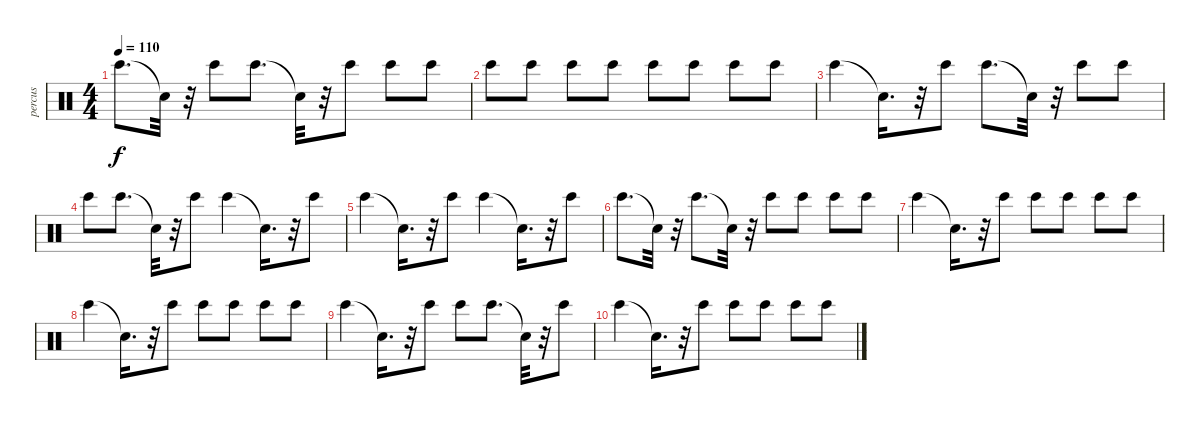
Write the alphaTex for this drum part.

\track ("percus" "percus") {instrument percussion}
\staff {score}
\articulation defaults
\ts (4 4)
\tempo 110
\clef neutral
\ks c "Bongo High (hit)".8{d dy f} "Snare (hit)"{t}.32
r.32 "Bongo High (hit)".8 "Bongo High (hit)".8{d} "Snare (hit)"{t}.32 r.32 "Bongo High (hit)".8 "Bongo High (hit)".8 "Bongo High (hit)".8 |
"Bongo High (hit)".8 "Bongo High (hit)".8 "Bongo High (hit)".8 "Bongo High (hit)".8 "Bongo High (hit)".8 "Bongo High (hit)".8 "Bongo High (hit)".8 "Bongo High (hit)".8 |
"Bongo High (hit)".4 "Snare (hit)"{t}.16{d} r.32 "Bongo High (hit)".8 "Bongo High (hit)".8{d} "Snare (hit)"{t}.32 r.32 "Bongo High (hit)".8 "Bongo High (hit)".8 |
"Bongo High (hit)".8 "Bongo High (hit)".8{d} "Snare (hit)"{t}.32 r.32 "Bongo High (hit)".8 "Bongo High (hit)".4 "Snare (hit)"{t}.16{d} r.32 "Bongo High (hit)".8 |
"Bongo High (hit)".4 "Snare (hit)"{t}.16{d} r.32 "Bongo High (hit)".8 "Bongo High (hit)".4 "Snare (hit)"{t}.16{d} r.32 "Bongo High (hit)".8 |
"Bongo High (hit)".8{d} "Snare (hit)"{t}.32 r.32 "Bongo High (hit)".8{d} "Snare (hit)"{t}.32 r.32 "Bongo High (hit)".8 "Bongo High (hit)".8 "Bongo High (hit)".8 "Bongo High (hit)".8 |
"Bongo High (hit)".4 "Snare (hit)"{t}.16{d} r.32 "Bongo High (hit)".8 "Bongo High (hit)".8 "Bongo High (hit)".8 "Bongo High (hit)".8 "Bongo High (hit)".8 |
"Bongo High (hit)".4 "Snare (hit)"{t}.16{d} r.32 "Bongo High (hit)".8 "Bongo High (hit)".8 "Bongo High (hit)".8 "Bongo High (hit)".8 "Bongo High (hit)".8 |
"Bongo High (hit)".4 "Snare (hit)"{t}.16{d} r.32 "Bongo High (hit)".8 "Bongo High (hit)".8 "Bongo High (hit)".8{d} "Snare (hit)"{t}.32 r.32 "Bongo High (hit)".8 |
"Bongo High (hit)".4 "Snare (hit)"{t}.16{d} r.32 "Bongo High (hit)".8 "Bongo High (hit)".8 "Bongo High (hit)".8 "Bongo High (hit)".8 "Bongo High (hit)".8
